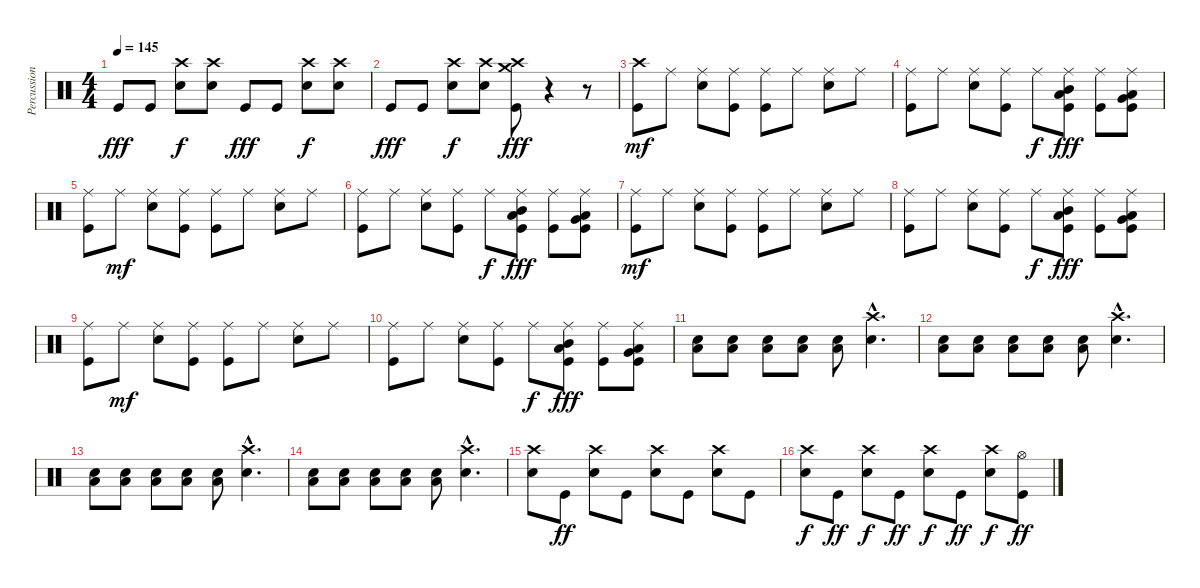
\track ("Percussion" "Percussion") {instrument percussion}
\staff {score}
\articulation defaults
\ts (4 4)
\tempo 145
\clef neutral
\ks c "Kick (hit)".8{dy fff} "Kick (hit)".8
("Crash high (hit)" "Snare (hit) 2").8{dy f} ("Crash high (hit)" "Snare (hit) 2").8 "Kick (hit)".8{dy fff} "Kick (hit)".8 ("Crash high (hit)" "Snare (hit) 2").8{dy f} ("Crash high (hit)" "Snare (hit) 2").8 |
"Kick (hit)".8{dy fff} "Kick (hit)".8 ("Crash high (hit)" "Snare (hit) 2").8{dy f} ("Crash high (hit)" "Snare (hit) 2").8 ("Crash high (hit)" "Crash medium (hit)" "Kick (hit)").8{dy fff} r.4 r.8 |
("Crash high (hit)" "Kick (hit)").8{dy mf} "Ride (middle)".8 ("Ride (middle)" "Snare (hit) 2").8 ("Ride (middle)" "Kick (hit)").8 ("Ride (middle)" "Kick (hit)").8 "Ride (middle)".8 ("Ride (middle)" "Snare (hit) 2").8 "Ride (middle)".8 |
("Ride (middle)" "Kick (hit)").8 "Ride (middle)".8 ("Ride (middle)" "Snare (hit) 2").8 ("Ride (middle)" "Kick (hit)").8 "Ride (middle)".8{dy f} ("Ride (middle)" "Mid Tom (hit)" "Low Tom (hit)" "Kick (hit)").8{dy fff} ("Ride (middle)" "Kick (hit)").8 ("Ride (middle)" "Very Low Tom (hit)" "Low Tom (hit)" "Kick (hit)").8 |
("Ride (middle)" "Kick (hit)").8 "Ride (middle)".8{dy mf} ("Ride (middle)" "Snare (hit) 2").8 ("Ride (middle)" "Kick (hit)").8 ("Ride (middle)" "Kick (hit)").8 "Ride (middle)".8 ("Ride (middle)" "Snare (hit) 2").8 "Ride (middle)".8 |
("Ride (middle)" "Kick (hit)").8 "Ride (middle)".8 ("Ride (middle)" "Snare (hit) 2").8 ("Ride (middle)" "Kick (hit)").8 "Ride (middle)".8{dy f} ("Ride (middle)" "Mid Tom (hit)" "Low Tom (hit)" "Kick (hit)").8{dy fff} ("Ride (middle)" "Kick (hit)").8 ("Ride (middle)" "Very Low Tom (hit)" "Low Tom (hit)" "Kick (hit)").8 |
("Ride (middle)" "Kick (hit)").8{dy mf} "Ride (middle)".8 ("Ride (middle)" "Snare (hit) 2").8 ("Ride (middle)" "Kick (hit)").8 ("Ride (middle)" "Kick (hit)").8 "Ride (middle)".8 ("Ride (middle)" "Snare (hit) 2").8 "Ride (middle)".8 |
("Ride (middle)" "Kick (hit)").8 "Ride (middle)".8 ("Ride (middle)" "Snare (hit) 2").8 ("Ride (middle)" "Kick (hit)").8 "Ride (middle)".8{dy f} ("Ride (middle)" "Mid Tom (hit)" "Low Tom (hit)" "Kick (hit)").8{dy fff} ("Ride (middle)" "Kick (hit)").8 ("Ride (middle)" "Very Low Tom (hit)" "Low Tom (hit)" "Kick (hit)").8 |
("Ride (middle)" "Kick (hit)").8 "Ride (middle)".8{dy mf} ("Ride (middle)" "Snare (hit) 2").8 ("Ride (middle)" "Kick (hit)").8 ("Ride (middle)" "Kick (hit)").8 "Ride (middle)".8 ("Ride (middle)" "Snare (hit) 2").8 "Ride (middle)".8 |
("Ride (middle)" "Kick (hit)").8 "Ride (middle)".8 ("Ride (middle)" "Snare (hit) 2").8 ("Ride (middle)" "Kick (hit)").8 "Ride (middle)".8{dy f} ("Ride (middle)" "Mid Tom (hit)" "Low Tom (hit)" "Kick (hit)").8{dy fff} ("Ride (middle)" "Kick (hit)").8 ("Ride (middle)" "Very Low Tom (hit)" "Low Tom (hit)" "Kick (hit)").8 |
("Low Floor Tom (hit)" "Snare (hit) 2").8 ("Low Floor Tom (hit)" "Snare (hit) 2").8 ("Low Floor Tom (hit)" "Snare (hit) 2").8 ("Low Floor Tom (hit)" "Snare (hit) 2").8 ("Low Floor Tom (hit)" "Snare (hit) 2").8 ("Crash high (hit)"{hac} "Snare (hit) 2"{hac}).4{d} |
("Low Floor Tom (hit)" "Snare (hit) 2").8 ("Low Floor Tom (hit)" "Snare (hit) 2").8 ("Low Floor Tom (hit)" "Snare (hit) 2").8 ("Low Floor Tom (hit)" "Snare (hit) 2").8 ("Low Floor Tom (hit)" "Snare (hit) 2").8 ("Crash high (hit)"{hac} "Snare (hit) 2"{hac}).4{d} |
("Low Floor Tom (hit)" "Snare (hit) 2").8 ("Low Floor Tom (hit)" "Snare (hit) 2").8 ("Low Floor Tom (hit)" "Snare (hit) 2").8 ("Low Floor Tom (hit)" "Snare (hit) 2").8 ("Low Floor Tom (hit)" "Snare (hit) 2").8 ("Crash high (hit)"{hac} "Snare (hit) 2"{hac}).4{d} |
("Low Floor Tom (hit)" "Snare (hit) 2").8 ("Low Floor Tom (hit)" "Snare (hit) 2").8 ("Low Floor Tom (hit)" "Snare (hit) 2").8 ("Low Floor Tom (hit)" "Snare (hit) 2").8 ("Low Floor Tom (hit)" "Snare (hit) 2").8 ("Crash high (hit)"{hac} "Snare (hit) 2"{hac}).4{d} |
("Crash high (hit)" "Snare (hit) 2").8 "Kick (hit)".8{dy ff} ("Crash high (hit)" "Snare (hit) 2").8 "Kick (hit)".8 ("Crash high (hit)" "Snare (hit) 2").8 "Kick (hit)".8 ("Crash high (hit)" "Snare (hit) 2").8 "Kick (hit)".8 |
("Crash high (hit)" "Snare (hit) 2").8{dy f} "Kick (hit)".8{dy ff} ("Crash high (hit)" "Snare (hit) 2").8{dy f} "Kick (hit)".8{dy ff} ("Crash high (hit)" "Snare (hit) 2").8{dy f} "Kick (hit)".8{dy ff} ("Crash high (hit)" "Snare (hit) 2").8{dy f} ("Hi-Hat (open)" "Kick (hit)").8{dy ff}
